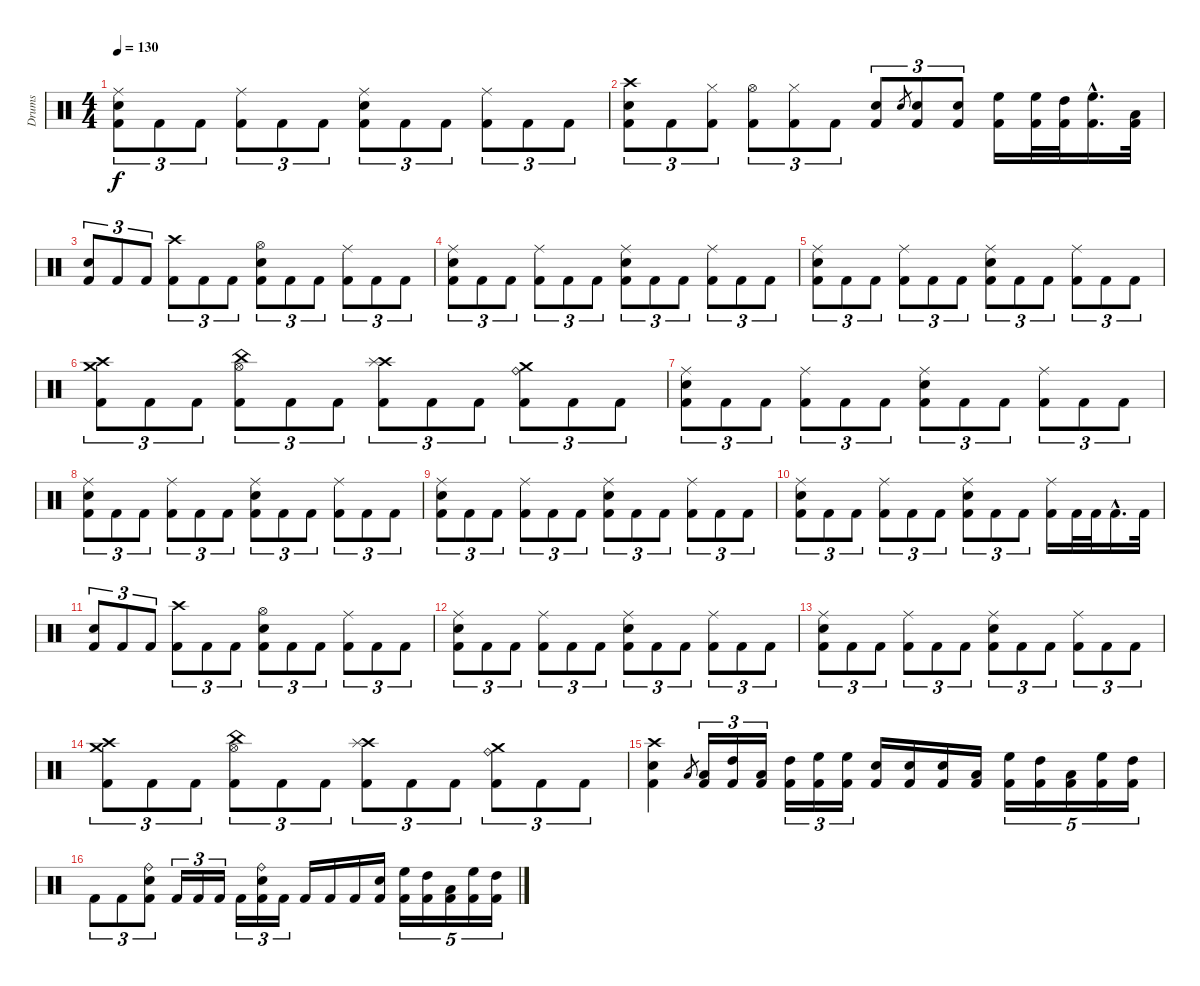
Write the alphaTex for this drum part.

\track ("Drums" "Drums") {instrument percussion}
\staff {score}
\articulation defaults
\ts (4 4)
\tempo 130
\clef neutral
\ks c
("Ride (middle)" "Snare (hit) 2" "Kick (hit) 2").8{tu (3 2) dy f} "Kick (hit) 2".8{tu (3 2)} "Kick (hit) 2".8{tu (3 2)} ("Ride (middle)" "Kick (hit) 2").8{tu (3 2)} "Kick (hit) 2".8{tu (3 2)} "Kick (hit) 2".8{tu (3 2)} ("Ride (middle)" "Snare (hit) 2" "Kick (hit) 2").8{tu (3 2)} "Kick (hit) 2".8{tu (3 2)} "Kick (hit) 2".8{tu (3 2)} ("Ride (middle)" "Kick (hit) 2").8{tu (3 2)} "Kick (hit) 2".8{tu (3 2)} "Kick (hit) 2".8{tu (3 2)} |
("Crash high (hit)" "Snare (hit) 2" "Kick (hit) 2").8{tu (3 2)} "Kick (hit) 2".8{tu (3 2)} ("Hi-Hat (closed)" "Kick (hit) 2").8{tu (3 2)} ("Hi-Hat (open)" "Kick (hit) 2").8{tu (3 2)} ("Hi-Hat (closed)" "Kick (hit) 2").8{tu (3 2)} "Kick (hit) 2".8{tu (3 2)} ("Snare (hit) 2" "Kick (hit) 2").8{tu (3 2)} "Snare (hit) 2".8{gr} ("Snare (hit) 2" "Kick (hit) 2").8{tu (3 2)} ("Snare (hit) 2" "Kick (hit) 2").8{tu (3 2)} ("High Floor Tom (hit)" "Kick (hit) 2").16 ("High Floor Tom (hit)" "Kick (hit) 2").32 ("High Tom (hit)" "Kick (hit) 2").32 ("High Floor Tom (hit)"{hac} "Kick (hit) 2"{hac}).16{d} ("Low Tom (hit)" "Kick (hit) 2").32 |
("Snare (hit) 2" "Kick (hit) 2").8{tu (3 2)} "Kick (hit) 2".8{tu (3 2)} "Kick (hit) 2".8{tu (3 2)} ("Crash high (hit)" "Kick (hit) 2").8{tu (3 2)} "Kick (hit) 2".8{tu (3 2)} "Kick (hit) 2".8{tu (3 2)} ("Hi-Hat (open)" "Snare (hit) 2" "Kick (hit) 2").8{tu (3 2)} "Kick (hit) 2".8{tu (3 2)} "Kick (hit) 2".8{tu (3 2)} ("Ride (middle)" "Kick (hit) 2").8{tu (3 2)} "Kick (hit) 2".8{tu (3 2)} "Kick (hit) 2".8{tu (3 2)} |
("Ride (middle)" "Snare (hit) 2" "Kick (hit) 2").8{tu (3 2)} "Kick (hit) 2".8{tu (3 2)} "Kick (hit) 2".8{tu (3 2)} ("Ride (middle)" "Kick (hit) 2").8{tu (3 2)} "Kick (hit) 2".8{tu (3 2)} "Kick (hit) 2".8{tu (3 2)} ("Ride (middle)" "Snare (hit) 2" "Kick (hit) 2").8{tu (3 2)} "Kick (hit) 2".8{tu (3 2)} "Kick (hit) 2".8{tu (3 2)} ("Ride (middle)" "Kick (hit) 2").8{tu (3 2)} "Kick (hit) 2".8{tu (3 2)} "Kick (hit) 2".8{tu (3 2)} |
("Ride (middle)" "Snare (hit) 2" "Kick (hit) 2").8{tu (3 2)} "Kick (hit) 2".8{tu (3 2)} "Kick (hit) 2".8{tu (3 2)} ("Ride (middle)" "Kick (hit) 2").8{tu (3 2)} "Kick (hit) 2".8{tu (3 2)} "Kick (hit) 2".8{tu (3 2)} ("Ride (middle)" "Snare (hit) 2" "Kick (hit) 2").8{tu (3 2)} "Kick (hit) 2".8{tu (3 2)} "Kick (hit) 2".8{tu (3 2)} ("Ride (middle)" "Kick (hit) 2").8{tu (3 2)} "Kick (hit) 2".8{tu (3 2)} "Kick (hit) 2".8{tu (3 2)} |
("Crash high (hit)" "Crash medium (hit)" "Kick (hit) 2").8{tu (3 2)} "Kick (hit) 2".8{tu (3 2)} "Kick (hit) 2".8{tu (3 2)} ("Hi-Hat (open)" "China (hit)" "Kick (hit) 2").8{tu (3 2)} "Kick (hit) 2".8{tu (3 2)} "Kick (hit) 2".8{tu (3 2)} ("Crash high (hit)" "Splash (hit)" "Kick (hit) 2").8{tu (3 2)} "Kick (hit) 2".8{tu (3 2)} "Kick (hit) 2".8{tu (3 2)} ("Crash medium (hit)" "Ride (bell)" "Kick (hit) 2").8{tu (3 2)} "Kick (hit) 2".8{tu (3 2)} "Kick (hit) 2".8{tu (3 2)} |
("Ride (middle)" "Snare (hit) 2" "Kick (hit) 2").8{tu (3 2)} "Kick (hit) 2".8{tu (3 2)} "Kick (hit) 2".8{tu (3 2)} ("Ride (middle)" "Kick (hit) 2").8{tu (3 2)} "Kick (hit) 2".8{tu (3 2)} "Kick (hit) 2".8{tu (3 2)} ("Ride (middle)" "Snare (hit) 2" "Kick (hit) 2").8{tu (3 2)} "Kick (hit) 2".8{tu (3 2)} "Kick (hit) 2".8{tu (3 2)} ("Ride (middle)" "Kick (hit) 2").8{tu (3 2)} "Kick (hit) 2".8{tu (3 2)} "Kick (hit) 2".8{tu (3 2)} |
("Ride (middle)" "Snare (hit) 2" "Kick (hit) 2").8{tu (3 2)} "Kick (hit) 2".8{tu (3 2)} "Kick (hit) 2".8{tu (3 2)} ("Ride (middle)" "Kick (hit) 2").8{tu (3 2)} "Kick (hit) 2".8{tu (3 2)} "Kick (hit) 2".8{tu (3 2)} ("Ride (middle)" "Snare (hit) 2" "Kick (hit) 2").8{tu (3 2)} "Kick (hit) 2".8{tu (3 2)} "Kick (hit) 2".8{tu (3 2)} ("Ride (middle)" "Kick (hit) 2").8{tu (3 2)} "Kick (hit) 2".8{tu (3 2)} "Kick (hit) 2".8{tu (3 2)} |
("Ride (middle)" "Snare (hit) 2" "Kick (hit) 2").8{tu (3 2)} "Kick (hit) 2".8{tu (3 2)} "Kick (hit) 2".8{tu (3 2)} ("Ride (middle)" "Kick (hit) 2").8{tu (3 2)} "Kick (hit) 2".8{tu (3 2)} "Kick (hit) 2".8{tu (3 2)} ("Ride (middle)" "Snare (hit) 2" "Kick (hit) 2").8{tu (3 2)} "Kick (hit) 2".8{tu (3 2)} "Kick (hit) 2".8{tu (3 2)} ("Ride (middle)" "Kick (hit) 2").8{tu (3 2)} "Kick (hit) 2".8{tu (3 2)} "Kick (hit) 2".8{tu (3 2)} |
("Ride (middle)" "Snare (hit) 2" "Kick (hit) 2").8{tu (3 2)} "Kick (hit) 2".8{tu (3 2)} "Kick (hit) 2".8{tu (3 2)} ("Ride (middle)" "Kick (hit) 2").8{tu (3 2)} "Kick (hit) 2".8{tu (3 2)} "Kick (hit) 2".8{tu (3 2)} ("Ride (middle)" "Snare (hit) 2" "Kick (hit) 2").8{tu (3 2)} "Kick (hit) 2".8{tu (3 2)} "Kick (hit) 2".8{tu (3 2)} ("Ride (middle)" "Kick (hit) 2").16 "Kick (hit) 2".32 "Kick (hit) 2".32 "Kick (hit) 2"{hac}.16{d} "Kick (hit) 2".32 |
("Snare (hit) 2" "Kick (hit) 2").8{tu (3 2)} "Kick (hit) 2".8{tu (3 2)} "Kick (hit) 2".8{tu (3 2)} ("Crash high (hit)" "Kick (hit) 2").8{tu (3 2)} "Kick (hit) 2".8{tu (3 2)} "Kick (hit) 2".8{tu (3 2)} ("Hi-Hat (open)" "Snare (hit) 2" "Kick (hit) 2").8{tu (3 2)} "Kick (hit) 2".8{tu (3 2)} "Kick (hit) 2".8{tu (3 2)} ("Ride (middle)" "Kick (hit) 2").8{tu (3 2)} "Kick (hit) 2".8{tu (3 2)} "Kick (hit) 2".8{tu (3 2)} |
("Ride (middle)" "Snare (hit) 2" "Kick (hit) 2").8{tu (3 2)} "Kick (hit) 2".8{tu (3 2)} "Kick (hit) 2".8{tu (3 2)} ("Ride (middle)" "Kick (hit) 2").8{tu (3 2)} "Kick (hit) 2".8{tu (3 2)} "Kick (hit) 2".8{tu (3 2)} ("Ride (middle)" "Snare (hit) 2" "Kick (hit) 2").8{tu (3 2)} "Kick (hit) 2".8{tu (3 2)} "Kick (hit) 2".8{tu (3 2)} ("Ride (middle)" "Kick (hit) 2").8{tu (3 2)} "Kick (hit) 2".8{tu (3 2)} "Kick (hit) 2".8{tu (3 2)} |
("Ride (middle)" "Snare (hit) 2" "Kick (hit) 2").8{tu (3 2)} "Kick (hit) 2".8{tu (3 2)} "Kick (hit) 2".8{tu (3 2)} ("Ride (middle)" "Kick (hit) 2").8{tu (3 2)} "Kick (hit) 2".8{tu (3 2)} "Kick (hit) 2".8{tu (3 2)} ("Ride (middle)" "Snare (hit) 2" "Kick (hit) 2").8{tu (3 2)} "Kick (hit) 2".8{tu (3 2)} "Kick (hit) 2".8{tu (3 2)} ("Ride (middle)" "Kick (hit) 2").8{tu (3 2)} "Kick (hit) 2".8{tu (3 2)} "Kick (hit) 2".8{tu (3 2)} |
("Crash high (hit)" "Crash medium (hit)" "Kick (hit) 2").8{tu (3 2)} "Kick (hit) 2".8{tu (3 2)} "Kick (hit) 2".8{tu (3 2)} ("Hi-Hat (open)" "China (hit)" "Kick (hit) 2").8{tu (3 2)} "Kick (hit) 2".8{tu (3 2)} "Kick (hit) 2".8{tu (3 2)} ("Crash high (hit)" "Splash (hit)" "Kick (hit) 2").8{tu (3 2)} "Kick (hit) 2".8{tu (3 2)} "Kick (hit) 2".8{tu (3 2)} ("Crash medium (hit)" "Ride (bell)" "Kick (hit) 2").8{tu (3 2)} "Kick (hit) 2".8{tu (3 2)} "Kick (hit) 2".8{tu (3 2)} |
("Crash high (hit)" "Snare (hit) 2" "Kick (hit) 2").4 "Low Tom (hit)".8{gr} ("Low Tom (hit)" "Kick (hit) 2").16{tu (3 2)} ("High Tom (hit)" "Kick (hit) 2").16{tu (3 2)} ("Low Tom (hit)" "Kick (hit) 2").16{tu (3 2)} ("High Tom (hit)" "Kick (hit) 2").16{tu (3 2)} ("High Floor Tom (hit)" "Kick (hit) 2").16{tu (3 2)} ("High Floor Tom (hit)" "Kick (hit) 2").16{tu (3 2)} ("Snare (hit) 2" "Kick (hit) 2").16 ("Snare (hit) 2" "Kick (hit) 2").16 ("Snare (hit) 2" "Kick (hit) 2").16 ("Low Tom (hit)" "Kick (hit) 2").16 ("High Floor Tom (hit)" "Kick (hit) 2").16{tu (5 4)} ("High Tom (hit)" "Kick (hit) 2").16{tu (5 4)} ("Low Tom (hit)" "Kick (hit) 2").16{tu (5 4)} ("High Floor Tom (hit)" "Kick (hit) 2").16{tu (5 4)} ("High Tom (hit)" "Kick (hit) 2").16{tu (5 4)} |
"Kick (hit) 2".8{tu (3 2)} "Kick (hit) 2".8{tu (3 2)} ("Ride (bell)" "Snare (hit) 2" "Kick (hit) 2").8{tu (3 2)} "Kick (hit) 2".16{tu (3 2)} "Kick (hit) 2".16{tu (3 2)} "Kick (hit) 2".16{tu (3 2)} "Kick (hit) 2".16{tu (3 2)} ("Ride (bell)" "Snare (hit) 2" "Kick (hit) 2").16{tu (3 2)} "Kick (hit) 2".16{tu (3 2)} "Kick (hit) 2".16 "Kick (hit) 2".16 "Kick (hit) 2".16 ("Snare (hit) 2" "Kick (hit) 2").16 ("High Floor Tom (hit)" "Kick (hit) 2").16{tu (5 4)} ("High Tom (hit)" "Kick (hit) 2").16{tu (5 4)} ("Low Tom (hit)" "Kick (hit) 2").16{tu (5 4)} ("High Floor Tom (hit)" "Kick (hit) 2").16{tu (5 4)} ("High Tom (hit)" "Kick (hit) 2").16{tu (5 4)}
